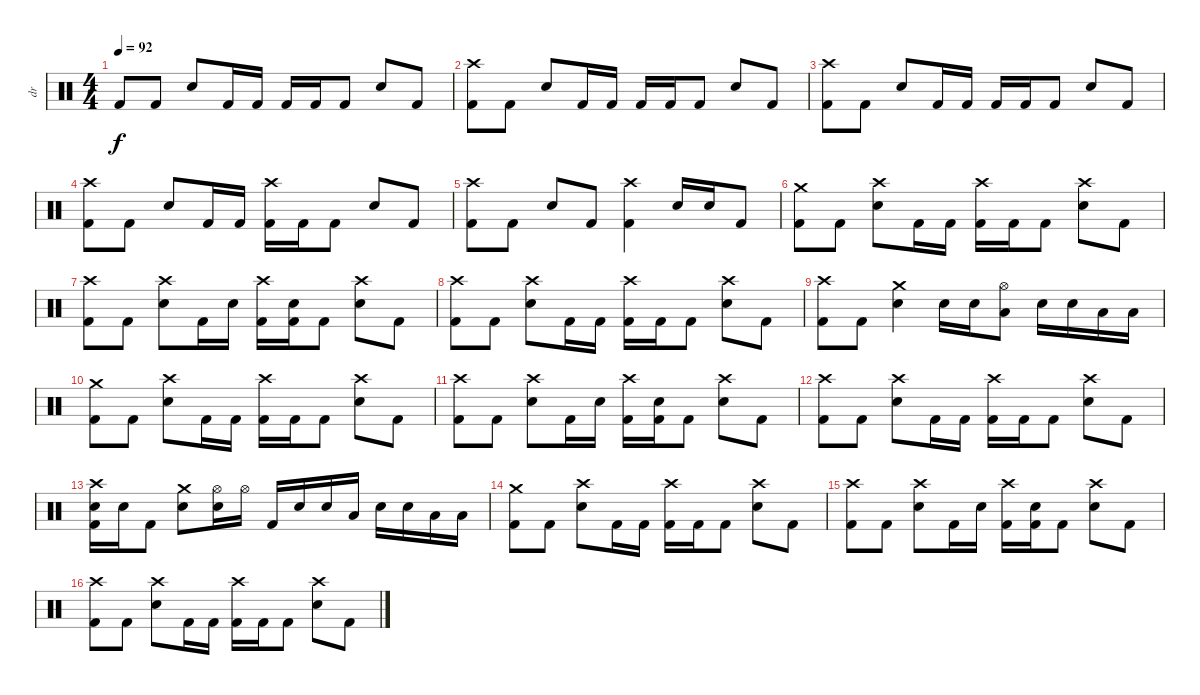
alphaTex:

\track ("dr" "dr") {instrument percussion}
\staff {score}
\articulation defaults
\ts (4 4)
\tempo 92
\clef neutral
\ks c "Kick (hit) 2".8{dy f} "Kick (hit) 2".8 "Electric Snare (hit)".8 "Kick (hit) 2".16 "Kick (hit) 2".16 "Kick (hit) 2".16 "Kick (hit) 2".16 "Kick (hit) 2".8 "Electric Snare (hit)".8 "Kick (hit) 2".8
|
("Crash high (hit)" "Kick (hit) 2").8 "Kick (hit) 2".8 "Electric Snare (hit)".8 "Kick (hit) 2".16 "Kick (hit) 2".16 "Kick (hit) 2".16 "Kick (hit) 2".16 "Kick (hit) 2".8 "Electric Snare (hit)".8 "Kick (hit) 2".8 |
("Crash high (hit)" "Kick (hit) 2").8 "Kick (hit) 2".8 "Electric Snare (hit)".8 "Kick (hit) 2".16 "Kick (hit) 2".16 "Kick (hit) 2".16 "Kick (hit) 2".16 "Kick (hit) 2".8 "Electric Snare (hit)".8 "Kick (hit) 2".8 |
("Crash high (hit)" "Kick (hit) 2").8 "Kick (hit) 2".8 "Electric Snare (hit)".8 "Kick (hit) 2".16 "Kick (hit) 2".16 ("Crash high (hit)" "Kick (hit) 2").16 "Kick (hit) 2".16 "Kick (hit) 2".8 "Electric Snare (hit)".8 "Kick (hit) 2".8 |
("Crash high (hit)" "Kick (hit) 2").8 "Kick (hit) 2".8 "Electric Snare (hit)".8 "Kick (hit) 2".8 ("Crash high (hit)" "Kick (hit) 2").4 "Electric Snare (hit)".16 "Electric Snare (hit)".16 "Kick (hit) 2".8 |
("Crash medium (hit)" "Kick (hit) 2").8 "Kick (hit) 2".8 ("Crash high (hit)" "Electric Snare (hit)").8 "Kick (hit) 2".16 "Kick (hit) 2".16 ("Crash high (hit)" "Kick (hit) 2").16 "Kick (hit) 2".16 "Kick (hit) 2".8 ("Crash high (hit)" "Electric Snare (hit)").8 "Kick (hit) 2".8 |
("Crash high (hit)" "Kick (hit) 2").8 "Kick (hit) 2".8 ("Crash high (hit)" "Electric Snare (hit)").8 "Kick (hit) 2".16 "Electric Snare (hit)".16 ("Crash high (hit)" "Kick (hit) 2").16 ("Electric Snare (hit)" "Kick (hit) 2").16 "Kick (hit) 2".8 ("Crash high (hit)" "Electric Snare (hit)").8 "Kick (hit) 2".8 |
("Crash high (hit)" "Kick (hit) 2").8 "Kick (hit) 2".8 ("Crash high (hit)" "Electric Snare (hit)").8 "Kick (hit) 2".16 "Kick (hit) 2".16 ("Crash high (hit)" "Kick (hit) 2").16 "Kick (hit) 2".16 "Kick (hit) 2".8 ("Crash high (hit)" "Electric Snare (hit)").8 "Kick (hit) 2".8 |
("Crash high (hit)" "Kick (hit) 2").8 "Kick (hit) 2".8 ("Crash medium (hit)" "Electric Snare (hit)").4 "Electric Snare (hit)".16 "Electric Snare (hit)".16 ("Hi-Hat (open)" "Low Tom (hit)").8 "Electric Snare (hit)".16 "Electric Snare (hit)".16 "Low Tom (hit)".16 "Low Floor Tom (hit)".16 |
("Crash medium (hit)" "Kick (hit) 2").8 "Kick (hit) 2".8 ("Crash high (hit)" "Electric Snare (hit)").8 "Kick (hit) 2".16 "Kick (hit) 2".16 ("Crash high (hit)" "Kick (hit) 2").16 "Kick (hit) 2".16 "Kick (hit) 2".8 ("Crash high (hit)" "Electric Snare (hit)").8 "Kick (hit) 2".8 |
("Crash high (hit)" "Kick (hit) 2").8 "Kick (hit) 2".8 ("Crash high (hit)" "Electric Snare (hit)").8 "Kick (hit) 2".16 "Electric Snare (hit)".16 ("Crash high (hit)" "Kick (hit) 2").16 ("Electric Snare (hit)" "Kick (hit) 2").16 "Kick (hit) 2".8 ("Crash high (hit)" "Electric Snare (hit)").8 "Kick (hit) 2".8 |
("Crash high (hit)" "Kick (hit) 2").8 "Kick (hit) 2".8 ("Crash high (hit)" "Electric Snare (hit)").8 "Kick (hit) 2".16 "Kick (hit) 2".16 ("Crash high (hit)" "Kick (hit) 2").16 "Kick (hit) 2".16 "Kick (hit) 2".8 ("Crash high (hit)" "Electric Snare (hit)").8 "Kick (hit) 2".8 |
("Crash high (hit)" "Electric Snare (hit)" "Kick (hit) 2").16 "Electric Snare (hit)".16 "Kick (hit) 2".8 ("Crash medium (hit)" "Electric Snare (hit)").8 ("Hi-Hat (open)" "Electric Snare (hit)").16 "Hi-Hat (open)".16 "Kick (hit) 2".16 "Electric Snare (hit)".16 "Electric Snare (hit)".16 "Low Tom (hit)".16 "Electric Snare (hit)".16 "Electric Snare (hit)".16 "Low Tom (hit)".16 "Low Floor Tom (hit)".16 |
("Crash medium (hit)" "Kick (hit) 2").8 "Kick (hit) 2".8 ("Crash high (hit)" "Electric Snare (hit)").8 "Kick (hit) 2".16 "Kick (hit) 2".16 ("Crash high (hit)" "Kick (hit) 2").16 "Kick (hit) 2".16 "Kick (hit) 2".8 ("Crash high (hit)" "Electric Snare (hit)").8 "Kick (hit) 2".8 |
("Crash high (hit)" "Kick (hit) 2").8 "Kick (hit) 2".8 ("Crash high (hit)" "Electric Snare (hit)").8 "Kick (hit) 2".16 "Electric Snare (hit)".16 ("Crash high (hit)" "Kick (hit) 2").16 ("Electric Snare (hit)" "Kick (hit) 2").16 "Kick (hit) 2".8 ("Crash high (hit)" "Electric Snare (hit)").8 "Kick (hit) 2".8 |
("Crash high (hit)" "Kick (hit) 2").8 "Kick (hit) 2".8 ("Crash high (hit)" "Electric Snare (hit)").8 "Kick (hit) 2".16 "Kick (hit) 2".16 ("Crash high (hit)" "Kick (hit) 2").16 "Kick (hit) 2".16 "Kick (hit) 2".8 ("Crash high (hit)" "Electric Snare (hit)").8 "Kick (hit) 2".8
